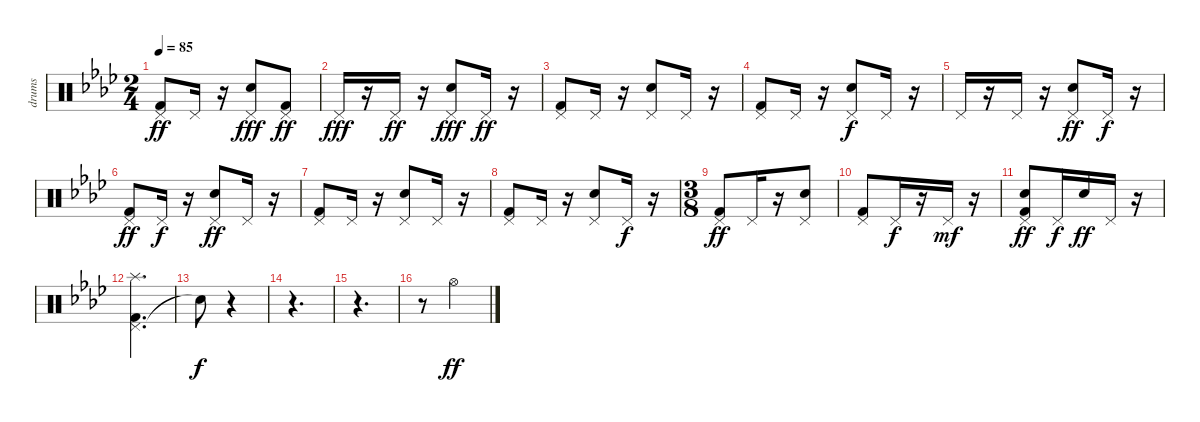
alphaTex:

\track ("drums" "drums") {instrument percussion}
\staff {score}
\articulation defaults
\ts (2 4)
\tempo 85
\clef neutral
\ks fminor
("Pedal Hi-Hat (hit)" "Kick (hit) 2").8{dy ff} "Pedal Hi-Hat (hit)".16 r.16 ("Electric Snare (hit)" "Pedal Hi-Hat (hit)").8{dy fff} ("Pedal Hi-Hat (hit)" "Kick (hit) 2").8{dy ff} |
"Pedal Hi-Hat (hit)".16{dy fff} r.16 "Pedal Hi-Hat (hit)".16{dy ff} r.16 ("Pedal Hi-Hat (hit)" "Electric Snare (hit)").8{dy fff} "Pedal Hi-Hat (hit)".16{dy ff} r.16 |
("Pedal Hi-Hat (hit)" "Kick (hit) 2").8 "Pedal Hi-Hat (hit)".16 r.16 ("Pedal Hi-Hat (hit)" "Electric Snare (hit)").8 "Pedal Hi-Hat (hit)".16 r.16 |
("Pedal Hi-Hat (hit)" "Kick (hit) 2").8 "Pedal Hi-Hat (hit)".16 r.16 ("Pedal Hi-Hat (hit)" "Electric Snare (hit)").8{dy f} "Pedal Hi-Hat (hit)".16 r.16 |
"Pedal Hi-Hat (hit)".16 r.16 "Pedal Hi-Hat (hit)".16 r.16 ("Electric Snare (hit)" "Pedal Hi-Hat (hit)").8{dy ff} "Pedal Hi-Hat (hit)".16{dy f} r.16 |
("Pedal Hi-Hat (hit)" "Kick (hit) 2").8{dy ff} "Pedal Hi-Hat (hit)".16{dy f} r.16 ("Pedal Hi-Hat (hit)" "Electric Snare (hit)").8{dy ff} "Pedal Hi-Hat (hit)".16 r.16 |
("Pedal Hi-Hat (hit)" "Kick (hit) 2").8 "Pedal Hi-Hat (hit)".16 r.16 ("Pedal Hi-Hat (hit)" "Electric Snare (hit)").8 "Pedal Hi-Hat (hit)".16 r.16 |
("Pedal Hi-Hat (hit)" "Kick (hit) 2").8 "Pedal Hi-Hat (hit)".16 r.16 ("Pedal Hi-Hat (hit)" "Electric Snare (hit)").8 "Pedal Hi-Hat (hit)".16{dy f} r.16 |
\ts (3 8)
("Kick (hit) 2" "Pedal Hi-Hat (hit)").8{dy ff} "Pedal Hi-Hat (hit)".16 r.16 ("Pedal Hi-Hat (hit)" "Electric Snare (hit)").8 |
("Pedal Hi-Hat (hit)" "Kick (hit) 2").8 "Pedal Hi-Hat (hit)".16{dy f} r.16 "Pedal Hi-Hat (hit)".16{dy mf} r.16 |
("Pedal Hi-Hat (hit)" "Kick (hit) 2" "Electric Snare (hit)").8{dy ff} "Pedal Hi-Hat (hit)".16{dy f} "Electric Snare (hit)".16{dy ff} "Pedal Hi-Hat (hit)".16 r.16 |
("Pedal Hi-Hat (hit)" "Kick (hit) 2" "Splash (hit)").4{d} |
"Snare (hit)"{t}.8{dy f} r.4 |
r.4{d} |
r.4{d} |
r.8 "Hi-Hat (open)".4{dy ff}
